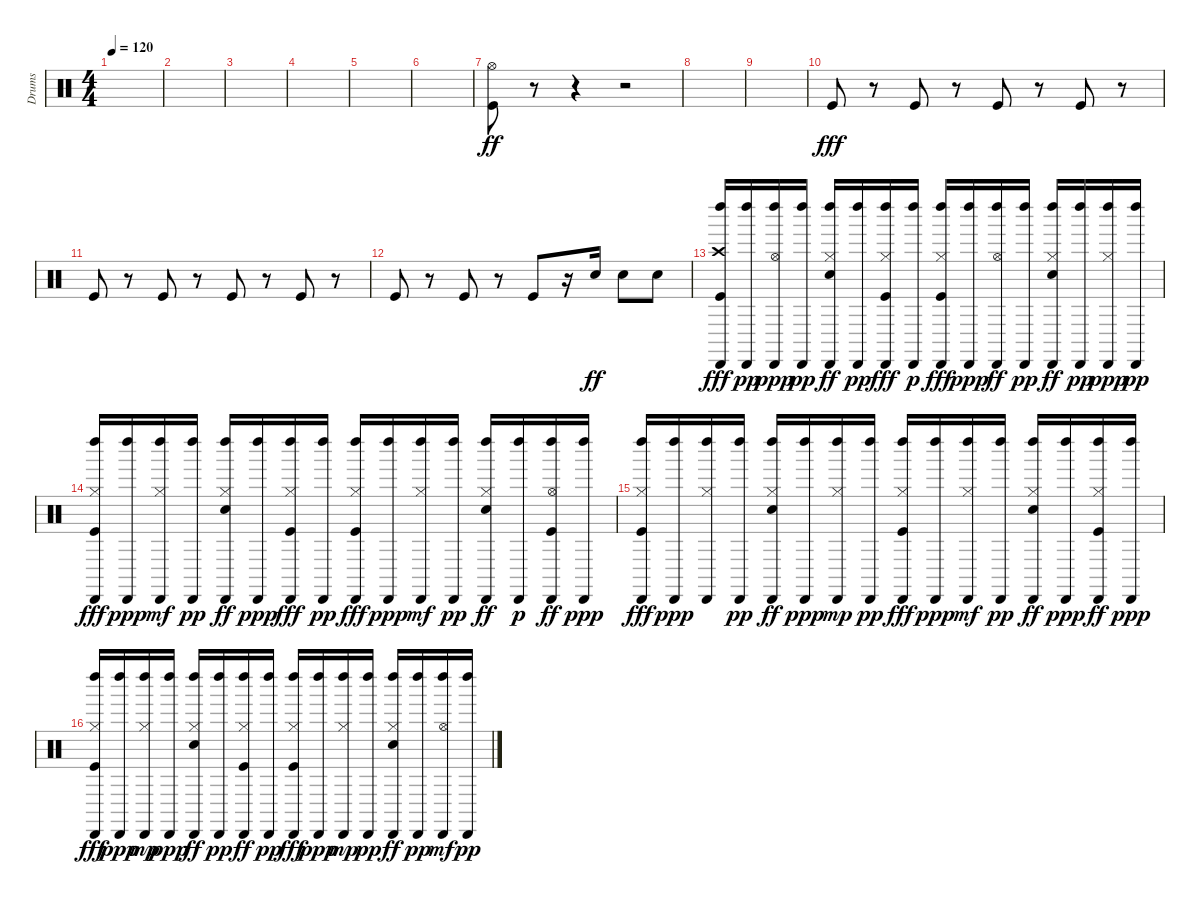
\track ("Drums" "Drums") {instrument percussion}
\staff {score}
\articulation defaults
\ts (4 4)
\tempo 120
\clef neutral
\ks c
|
|
|
|
|
|
("Hi-Hat (open)" "Kick (hit)").8{dy ff} r.8 r.4 r.2 |
|
|
"Kick (hit)".8{dy fff} r.8 "Kick (hit)".8 r.8 "Kick (hit)".8 r.8 "Kick (hit)".8 r.8 |
"Kick (hit)".8 r.8 "Kick (hit)".8 r.8 "Kick (hit)".8 r.8 "Kick (hit)".8 r.8 |
"Kick (hit)".8 r.8 "Kick (hit)".8 r.8 "Kick (hit)".8 r.16 "Electric Snare (hit)".16{dy ff} "Electric Snare (hit)".8 "Electric Snare (hit)".8 |
("Left Maraca (hit)" "Cabasa (hit)" "Crash high (hit)" "Kick (hit)").16{dy fff} ("Left Maraca (hit)" "Cabasa (hit)").16{dy pp} ("Left Maraca (hit)" "Cabasa (hit)" "Hi-Hat (open)").16{dy ppp} ("Left Maraca (hit)" "Cabasa (hit)").16{dy pp} ("Left Maraca (hit)" "Cabasa (hit)" "Hi-Hat (closed)" "Electric Snare (hit)").16{dy ff} ("Left Maraca (hit)" "Cabasa (hit)").16{dy pp} ("Left Maraca (hit)" "Cabasa (hit)" "Hi-Hat (closed)" "Kick (hit)").16{dy fff} ("Left Maraca (hit)" "Cabasa (hit)").16{dy p} ("Left Maraca (hit)" "Cabasa (hit)" "Hi-Hat (closed)" "Kick (hit)").16{dy fff} ("Left Maraca (hit)" "Cabasa (hit)").16{dy ppp} ("Left Maraca (hit)" "Cabasa (hit)" "Hi-Hat (open)").16{dy ff} ("Left Maraca (hit)" "Cabasa (hit)").16{dy pp} ("Left Maraca (hit)" "Cabasa (hit)" "Hi-Hat (closed)" "Electric Snare (hit)").16{dy ff} ("Left Maraca (hit)" "Cabasa (hit)").16{dy pp} ("Left Maraca (hit)" "Cabasa (hit)" "Hi-Hat (closed)").16{dy ppp} ("Left Maraca (hit)" "Cabasa (hit)").16{dy pp} |
("Left Maraca (hit)" "Cabasa (hit)" "Hi-Hat (closed)" "Kick (hit)").16{dy fff} ("Left Maraca (hit)" "Cabasa (hit)").16{dy ppp} ("Left Maraca (hit)" "Cabasa (hit)" "Hi-Hat (closed)").16{dy mf} ("Left Maraca (hit)" "Cabasa (hit)").16{dy pp} ("Left Maraca (hit)" "Cabasa (hit)" "Hi-Hat (closed)" "Electric Snare (hit)").16{dy ff} ("Left Maraca (hit)" "Cabasa (hit)").16{dy ppp} ("Left Maraca (hit)" "Cabasa (hit)" "Hi-Hat (closed)" "Kick (hit)").16{dy fff} ("Left Maraca (hit)" "Cabasa (hit)").16{dy pp} ("Left Maraca (hit)" "Cabasa (hit)" "Hi-Hat (closed)" "Kick (hit)").16{dy fff} ("Left Maraca (hit)" "Cabasa (hit)").16{dy ppp} ("Left Maraca (hit)" "Cabasa (hit)" "Hi-Hat (closed)").16{dy mf} ("Left Maraca (hit)" "Cabasa (hit)").16{dy pp} ("Left Maraca (hit)" "Cabasa (hit)" "Hi-Hat (closed)" "Electric Snare (hit)").16{dy ff} ("Left Maraca (hit)" "Cabasa (hit)").16{dy p} ("Left Maraca (hit)" "Cabasa (hit)" "Hi-Hat (open)" "Kick (hit)").16{dy ff} ("Left Maraca (hit)" "Cabasa (hit)").16{dy ppp} |
("Left Maraca (hit)" "Cabasa (hit)" "Hi-Hat (closed)" "Kick (hit)").16{dy fff} ("Left Maraca (hit)" "Cabasa (hit)").16{dy ppp} ("Left Maraca (hit)" "Cabasa (hit)" "Hi-Hat (closed)").16 ("Left Maraca (hit)" "Cabasa (hit)").16{dy pp} ("Left Maraca (hit)" "Cabasa (hit)" "Hi-Hat (closed)" "Electric Snare (hit)").16{dy ff} ("Left Maraca (hit)" "Cabasa (hit)").16{dy ppp} ("Left Maraca (hit)" "Cabasa (hit)" "Hi-Hat (closed)").16{dy mp} ("Left Maraca (hit)" "Cabasa (hit)").16{dy pp} ("Left Maraca (hit)" "Cabasa (hit)" "Hi-Hat (closed)" "Kick (hit)").16{dy fff} ("Left Maraca (hit)" "Cabasa (hit)").16{dy ppp} ("Left Maraca (hit)" "Cabasa (hit)" "Hi-Hat (closed)").16{dy mf} ("Left Maraca (hit)" "Cabasa (hit)").16{dy pp} ("Left Maraca (hit)" "Cabasa (hit)" "Hi-Hat (closed)" "Electric Snare (hit)").16{dy ff} ("Left Maraca (hit)" "Cabasa (hit)").16{dy ppp} ("Left Maraca (hit)" "Cabasa (hit)" "Hi-Hat (closed)" "Kick (hit)").16{dy ff} ("Left Maraca (hit)" "Cabasa (hit)").16{dy ppp} |
("Left Maraca (hit)" "Cabasa (hit)" "Hi-Hat (closed)" "Kick (hit)").16{dy fff} ("Left Maraca (hit)" "Cabasa (hit)").16{dy ppp} ("Left Maraca (hit)" "Cabasa (hit)" "Hi-Hat (closed)").16{dy mp} ("Left Maraca (hit)" "Cabasa (hit)").16{dy ppp} ("Left Maraca (hit)" "Cabasa (hit)" "Hi-Hat (closed)" "Electric Snare (hit)").16{dy ff} ("Left Maraca (hit)" "Cabasa (hit)").16{dy pp} ("Left Maraca (hit)" "Cabasa (hit)" "Hi-Hat (closed)" "Kick (hit)").16{dy ff} ("Left Maraca (hit)" "Cabasa (hit)").16{dy pp} ("Left Maraca (hit)" "Cabasa (hit)" "Hi-Hat (closed)" "Kick (hit)").16{dy fff} ("Left Maraca (hit)" "Cabasa (hit)").16{dy ppp} ("Left Maraca (hit)" "Cabasa (hit)" "Hi-Hat (closed)").16{dy mp} ("Left Maraca (hit)" "Cabasa (hit)").16{dy pp} ("Left Maraca (hit)" "Cabasa (hit)" "Hi-Hat (closed)" "Electric Snare (hit)").16{dy ff} ("Left Maraca (hit)" "Cabasa (hit)").16{dy pp} ("Left Maraca (hit)" "Cabasa (hit)" "Hi-Hat (open)").16{dy mf} ("Left Maraca (hit)" "Cabasa (hit)").16{dy pp}
